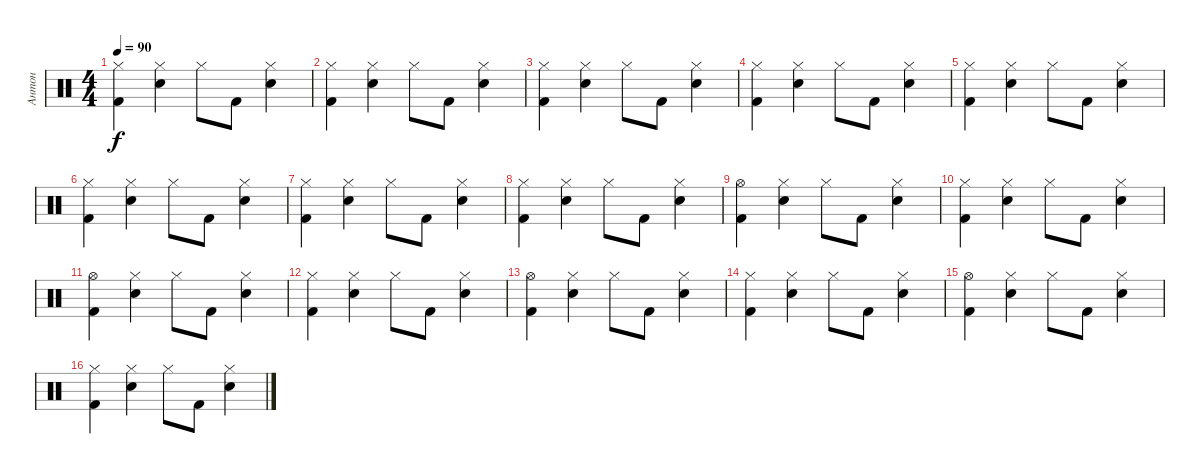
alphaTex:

\track ("Антон" "Антон") {instrument percussion}
\staff {score}
\articulation defaults
\ts (4 4)
\tempo 90
\clef neutral
\ks c
("Hi-Hat (closed)" "Kick (hit) 2").4{dy f} ("Hi-Hat (closed)" "Electric Snare (hit)").4 "Hi-Hat (closed)".8 "Kick (hit) 2".8 ("Hi-Hat (closed)" "Electric Snare (hit)").4 |
("Hi-Hat (closed)" "Kick (hit) 2").4 ("Hi-Hat (closed)" "Electric Snare (hit)").4 "Hi-Hat (closed)".8 "Kick (hit) 2".8 ("Hi-Hat (closed)" "Electric Snare (hit)").4 |
("Hi-Hat (closed)" "Kick (hit) 2").4 ("Hi-Hat (closed)" "Electric Snare (hit)").4 "Hi-Hat (closed)".8 "Kick (hit) 2".8 ("Hi-Hat (closed)" "Electric Snare (hit)").4 |
("Hi-Hat (closed)" "Kick (hit) 2").4 ("Hi-Hat (closed)" "Electric Snare (hit)").4 "Hi-Hat (closed)".8 "Kick (hit) 2".8 ("Hi-Hat (closed)" "Electric Snare (hit)").4 |
("Hi-Hat (closed)" "Kick (hit) 2").4 ("Hi-Hat (closed)" "Electric Snare (hit)").4 "Hi-Hat (closed)".8 "Kick (hit) 2".8 ("Hi-Hat (closed)" "Electric Snare (hit)").4 |
("Hi-Hat (closed)" "Kick (hit) 2").4 ("Hi-Hat (closed)" "Electric Snare (hit)").4 "Hi-Hat (closed)".8 "Kick (hit) 2".8 ("Hi-Hat (closed)" "Electric Snare (hit)").4 |
("Hi-Hat (closed)" "Kick (hit) 2").4 ("Hi-Hat (closed)" "Electric Snare (hit)").4 "Hi-Hat (closed)".8 "Kick (hit) 2".8 ("Hi-Hat (closed)" "Electric Snare (hit)").4 |
("Hi-Hat (closed)" "Kick (hit) 2").4 ("Hi-Hat (closed)" "Electric Snare (hit)").4 "Hi-Hat (closed)".8 "Kick (hit) 2".8 ("Hi-Hat (closed)" "Electric Snare (hit)").4 |
("Hi-Hat (open)" "Kick (hit) 2").4 ("Hi-Hat (closed)" "Electric Snare (hit)").4 "Hi-Hat (closed)".8 "Kick (hit) 2".8 ("Hi-Hat (closed)" "Electric Snare (hit)").4 |
("Hi-Hat (closed)" "Kick (hit) 2").4 ("Hi-Hat (closed)" "Electric Snare (hit)").4 "Hi-Hat (closed)".8 "Kick (hit) 2".8 ("Hi-Hat (closed)" "Electric Snare (hit)").4 |
("Hi-Hat (open)" "Kick (hit) 2").4 ("Hi-Hat (closed)" "Electric Snare (hit)").4 "Hi-Hat (closed)".8 "Kick (hit) 2".8 ("Hi-Hat (closed)" "Electric Snare (hit)").4 |
("Hi-Hat (closed)" "Kick (hit) 2").4 ("Hi-Hat (closed)" "Electric Snare (hit)").4 "Hi-Hat (closed)".8 "Kick (hit) 2".8 ("Hi-Hat (closed)" "Electric Snare (hit)").4 |
("Hi-Hat (open)" "Kick (hit) 2").4 ("Hi-Hat (closed)" "Electric Snare (hit)").4 "Hi-Hat (closed)".8 "Kick (hit) 2".8 ("Hi-Hat (closed)" "Electric Snare (hit)").4 |
("Hi-Hat (closed)" "Kick (hit) 2").4 ("Hi-Hat (closed)" "Electric Snare (hit)").4 "Hi-Hat (closed)".8 "Kick (hit) 2".8 ("Hi-Hat (closed)" "Electric Snare (hit)").4 |
("Hi-Hat (open)" "Kick (hit) 2").4 ("Hi-Hat (closed)" "Electric Snare (hit)").4 "Hi-Hat (closed)".8 "Kick (hit) 2".8 ("Hi-Hat (closed)" "Electric Snare (hit)").4 |
("Hi-Hat (closed)" "Kick (hit) 2").4 ("Hi-Hat (closed)" "Electric Snare (hit)").4 "Hi-Hat (closed)".8 "Kick (hit) 2".8 ("Hi-Hat (closed)" "Electric Snare (hit)").4
